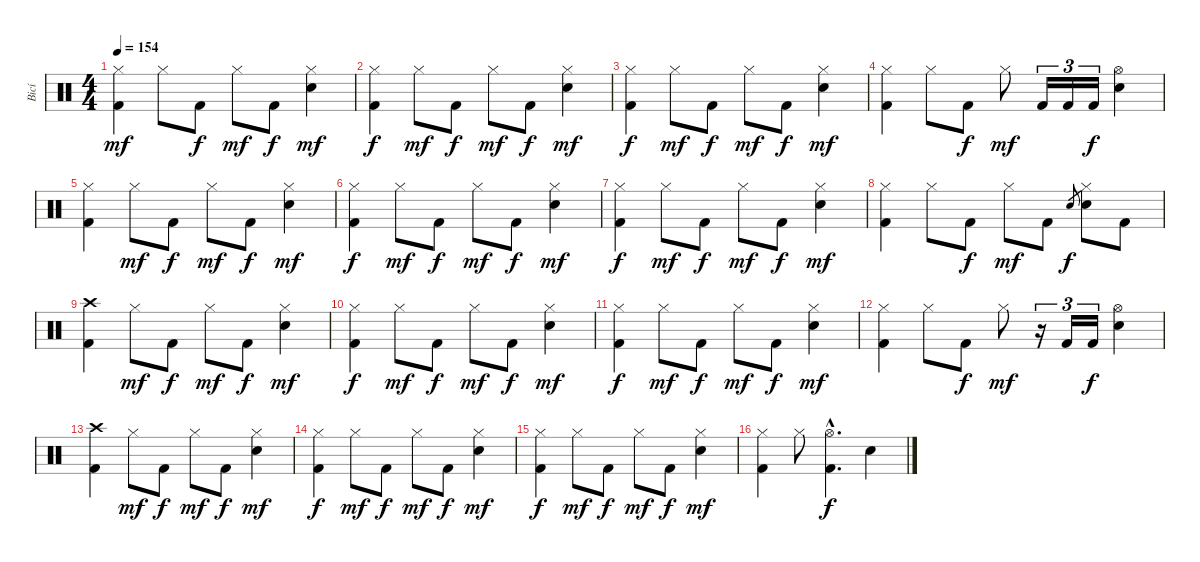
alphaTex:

\track ("Bicí" "Bicí") {instrument percussion}
\staff {score}
\articulation defaults
\ts (4 4)
\tempo 154
\clef neutral
\ks c
("Hi-Hat (closed)" "Kick (hit) 2").4{dy mf} "Hi-Hat (closed)".8 "Kick (hit) 2".8{dy f} "Hi-Hat (closed)".8{dy mf} "Kick (hit) 2".8{dy f} ("Hi-Hat (closed)" "Electric Snare (hit)").4{dy mf} |
("Hi-Hat (closed)" "Kick (hit) 2").4{dy f} "Hi-Hat (closed)".8{dy mf} "Kick (hit) 2".8{dy f} "Hi-Hat (closed)".8{dy mf} "Kick (hit) 2".8{dy f} ("Hi-Hat (closed)" "Electric Snare (hit)").4{dy mf} |
("Hi-Hat (closed)" "Kick (hit) 2").4{dy f} "Hi-Hat (closed)".8{dy mf} "Kick (hit) 2".8{dy f} "Hi-Hat (closed)".8{dy mf} "Kick (hit) 2".8{dy f} ("Hi-Hat (closed)" "Electric Snare (hit)").4{dy mf} |
("Hi-Hat (closed)" "Kick (hit) 2").4 "Hi-Hat (closed)".8 "Kick (hit) 2".8{dy f} "Hi-Hat (closed)".8{dy mf} "Kick (hit) 2".16{tu (3 2)} "Kick (hit) 2".16{tu (3 2)} "Kick (hit) 2".16{tu (3 2) dy f} ("Hi-Hat (open)" "Electric Snare (hit)").4 |
("Hi-Hat (closed)" "Kick (hit) 2").4 "Hi-Hat (closed)".8{dy mf} "Kick (hit) 2".8{dy f} "Hi-Hat (closed)".8{dy mf} "Kick (hit) 2".8{dy f} ("Hi-Hat (closed)" "Electric Snare (hit)").4{dy mf} |
("Hi-Hat (closed)" "Kick (hit) 2").4{dy f} "Hi-Hat (closed)".8{dy mf} "Kick (hit) 2".8{dy f} "Hi-Hat (closed)".8{dy mf} "Kick (hit) 2".8{dy f} ("Hi-Hat (closed)" "Electric Snare (hit)").4{dy mf} |
("Hi-Hat (closed)" "Kick (hit) 2").4{dy f} "Hi-Hat (closed)".8{dy mf} "Kick (hit) 2".8{dy f} "Hi-Hat (closed)".8{dy mf} "Kick (hit) 2".8{dy f} ("Hi-Hat (closed)" "Electric Snare (hit)").4{dy mf} |
("Hi-Hat (closed)" "Kick (hit) 2").4 "Hi-Hat (closed)".8 "Kick (hit) 2".8{dy f} "Hi-Hat (closed)".8{dy mf} "Kick (hit) 2".8 "Snare (hit) 2".8{gr dy f} ("Hi-Hat (closed)" "Electric Snare (hit)").8 "Kick (hit) 2".8 |
("Crash high (hit)" "Kick (hit) 2").4 "Hi-Hat (closed)".8{dy mf} "Kick (hit) 2".8{dy f} "Hi-Hat (closed)".8{dy mf} "Kick (hit) 2".8{dy f} ("Hi-Hat (closed)" "Electric Snare (hit)").4{dy mf} |
("Hi-Hat (closed)" "Kick (hit) 2").4{dy f} "Hi-Hat (closed)".8{dy mf} "Kick (hit) 2".8{dy f} "Hi-Hat (closed)".8{dy mf} "Kick (hit) 2".8{dy f} ("Hi-Hat (closed)" "Electric Snare (hit)").4{dy mf} |
("Hi-Hat (closed)" "Kick (hit) 2").4{dy f} "Hi-Hat (closed)".8{dy mf} "Kick (hit) 2".8{dy f} "Hi-Hat (closed)".8{dy mf} "Kick (hit) 2".8{dy f} ("Hi-Hat (closed)" "Electric Snare (hit)").4{dy mf} |
("Hi-Hat (closed)" "Kick (hit) 2").4 "Hi-Hat (closed)".8 "Kick (hit) 2".8{dy f} "Hi-Hat (closed)".8{dy mf} r.16{tu (3 2)} "Kick (hit) 2".16{tu (3 2)} "Kick (hit) 2".16{tu (3 2) dy f} ("Hi-Hat (open)" "Electric Snare (hit)").4 |
("Crash high (hit)" "Kick (hit) 2").4 "Hi-Hat (closed)".8{dy mf} "Kick (hit) 2".8{dy f} "Hi-Hat (closed)".8{dy mf} "Kick (hit) 2".8{dy f} ("Hi-Hat (closed)" "Electric Snare (hit)").4{dy mf} |
("Hi-Hat (closed)" "Kick (hit) 2").4{dy f} "Hi-Hat (closed)".8{dy mf} "Kick (hit) 2".8{dy f} "Hi-Hat (closed)".8{dy mf} "Kick (hit) 2".8{dy f} ("Hi-Hat (closed)" "Electric Snare (hit)").4{dy mf} |
("Hi-Hat (closed)" "Kick (hit) 2").4{dy f} "Hi-Hat (closed)".8{dy mf} "Kick (hit) 2".8{dy f} "Hi-Hat (closed)".8{dy mf} "Kick (hit) 2".8{dy f} ("Hi-Hat (closed)" "Electric Snare (hit)").4{dy mf} |
("Hi-Hat (closed)" "Kick (hit) 2").4 "Hi-Hat (closed)".8 ("Hi-Hat (open)"{hac} "Kick (hit) 2"{hac}).4{d dy f} "Electric Snare (hit)".4
